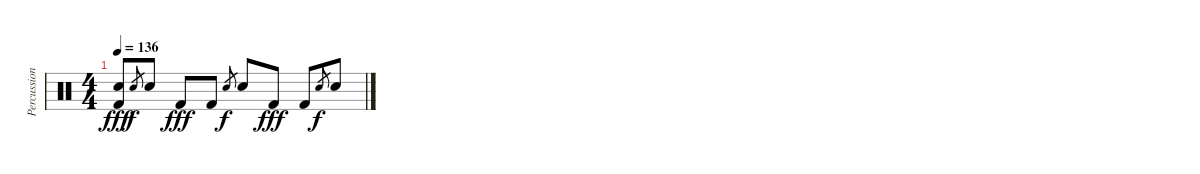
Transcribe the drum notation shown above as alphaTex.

\track ("Percussion" "Percussion") {instrument percussion}
\staff {score}
\articulation defaults
\ts (4 4)
\tempo 136
\clef neutral
\ks c
("Snare (hit)"{t} "Kick (hit) 2").8{dy fff} "Electric Snare (hit)".8{gr dy f} "Electric Snare (hit)".8 "Kick (hit) 2".8{dy fff} "Kick (hit) 2".8 "Electric Snare (hit)".8{gr dy f} "Electric Snare (hit)".8 "Kick (hit) 2".8{dy fff} "Kick (hit) 2".8 "Electric Snare (hit)".8{gr dy f} "Electric Snare (hit)".8
